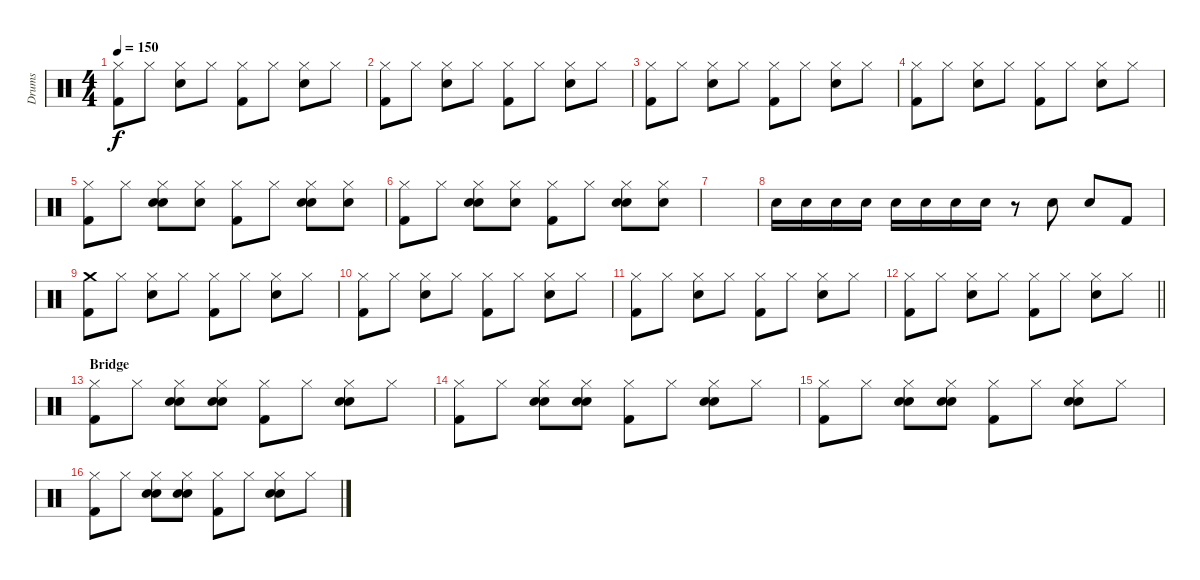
\track ("Drums" "Drums") {instrument percussion}
\staff {score}
\articulation defaults
\ts (4 4)
\tempo 150
\clef neutral
\ks c
("Hi-Hat (closed)" "Kick (hit) 2").8{dy f} "Hi-Hat (closed)".8 ("Hi-Hat (closed)" "Snare (hit) 2").8 "Hi-Hat (closed)".8 ("Hi-Hat (closed)" "Kick (hit) 2").8 "Hi-Hat (closed)".8 ("Hi-Hat (closed)" "Snare (hit) 2").8 "Hi-Hat (closed)".8 |
("Hi-Hat (closed)" "Kick (hit) 2").8 "Hi-Hat (closed)".8 ("Hi-Hat (closed)" "Snare (hit) 2").8 "Hi-Hat (closed)".8 ("Hi-Hat (closed)" "Kick (hit) 2").8 "Hi-Hat (closed)".8 ("Hi-Hat (closed)" "Snare (hit) 2").8 "Hi-Hat (closed)".8 |
("Hi-Hat (closed)" "Kick (hit) 2").8 "Hi-Hat (closed)".8 ("Hi-Hat (closed)" "Snare (hit) 2").8 "Hi-Hat (closed)".8 ("Hi-Hat (closed)" "Kick (hit) 2").8 "Hi-Hat (closed)".8 ("Hi-Hat (closed)" "Snare (hit) 2").8 "Hi-Hat (closed)".8 |
("Hi-Hat (closed)" "Kick (hit) 2").8 "Hi-Hat (closed)".8 ("Hi-Hat (closed)" "Snare (hit) 2").8 "Hi-Hat (closed)".8 ("Hi-Hat (closed)" "Kick (hit) 2").8 "Hi-Hat (closed)".8 ("Hi-Hat (closed)" "Snare (hit) 2").8 "Hi-Hat (closed)".8 |
("Hi-Hat (closed)" "Kick (hit) 2").8 "Hi-Hat (closed)".8 ("Hi-Hat (closed)" "Hand Clap (hit)" "Snare (hit) 2").8 ("Hi-Hat (closed)" "Hand Clap (hit)").8 ("Hi-Hat (closed)" "Kick (hit) 2").8 "Hi-Hat (closed)".8 ("Hi-Hat (closed)" "Hand Clap (hit)" "Snare (hit) 2").8 ("Hi-Hat (closed)" "Hand Clap (hit)").8 |
("Hi-Hat (closed)" "Kick (hit) 2").8 "Hi-Hat (closed)".8 ("Hi-Hat (closed)" "Hand Clap (hit)" "Snare (hit) 2").8 ("Hi-Hat (closed)" "Hand Clap (hit)").8 ("Hi-Hat (closed)" "Kick (hit) 2").8 "Hi-Hat (closed)".8 ("Hi-Hat (closed)" "Hand Clap (hit)" "Snare (hit) 2").8 ("Hi-Hat (closed)" "Hand Clap (hit)").8 |
|
"Snare (hit) 2".16 "Snare (hit) 2".16 "Snare (hit) 2".16 "Snare (hit) 2".16 "Snare (hit) 2".16 "Snare (hit) 2".16 "Snare (hit) 2".16 "Snare (hit) 2".16 r.8 "Snare (hit) 2".8 "Snare (hit) 2".8 "Kick (hit) 2".8 |
("Crash medium (hit)" "Kick (hit) 2").8 "Hi-Hat (closed)".8 ("Hi-Hat (closed)" "Snare (hit) 2").8 "Hi-Hat (closed)".8 ("Hi-Hat (closed)" "Kick (hit) 2").8 "Hi-Hat (closed)".8 ("Hi-Hat (closed)" "Snare (hit) 2").8 "Hi-Hat (closed)".8 |
("Hi-Hat (closed)" "Kick (hit) 2").8 "Hi-Hat (closed)".8 ("Hi-Hat (closed)" "Snare (hit) 2").8 "Hi-Hat (closed)".8 ("Hi-Hat (closed)" "Kick (hit) 2").8 "Hi-Hat (closed)".8 ("Hi-Hat (closed)" "Snare (hit) 2").8 "Hi-Hat (closed)".8 |
("Hi-Hat (closed)" "Kick (hit) 2").8 "Hi-Hat (closed)".8 ("Hi-Hat (closed)" "Snare (hit) 2").8 "Hi-Hat (closed)".8 ("Hi-Hat (closed)" "Kick (hit) 2").8 "Hi-Hat (closed)".8 ("Hi-Hat (closed)" "Snare (hit) 2").8 "Hi-Hat (closed)".8 |
\barLineRight lightlight
("Hi-Hat (closed)" "Kick (hit) 2").8 "Hi-Hat (closed)".8 ("Hi-Hat (closed)" "Snare (hit) 2").8 "Hi-Hat (closed)".8 ("Hi-Hat (closed)" "Kick (hit) 2").8 "Hi-Hat (closed)".8 ("Hi-Hat (closed)" "Snare (hit) 2").8 "Hi-Hat (closed)".8 |
\section ("" "Bridge")
("Hi-Hat (closed)" "Kick (hit) 2").8 "Hi-Hat (closed)".8 ("Hi-Hat (closed)" "Hand Clap (hit)" "Snare (hit) 2").8 ("Hi-Hat (closed)" "Hand Clap (hit)" "Snare (hit) 2").8 ("Hi-Hat (closed)" "Kick (hit) 2").8 "Hi-Hat (closed)".8 ("Hi-Hat (closed)" "Hand Clap (hit)" "Snare (hit) 2").8 "Hi-Hat (closed)".8 |
("Hi-Hat (closed)" "Kick (hit) 2").8 "Hi-Hat (closed)".8 ("Hi-Hat (closed)" "Hand Clap (hit)" "Snare (hit) 2").8 ("Hi-Hat (closed)" "Hand Clap (hit)" "Snare (hit) 2").8 ("Hi-Hat (closed)" "Kick (hit) 2").8 "Hi-Hat (closed)".8 ("Hi-Hat (closed)" "Hand Clap (hit)" "Snare (hit) 2").8 "Hi-Hat (closed)".8 |
("Hi-Hat (closed)" "Kick (hit) 2").8 "Hi-Hat (closed)".8 ("Hi-Hat (closed)" "Hand Clap (hit)" "Snare (hit) 2").8 ("Hi-Hat (closed)" "Hand Clap (hit)" "Snare (hit) 2").8 ("Hi-Hat (closed)" "Kick (hit) 2").8 "Hi-Hat (closed)".8 ("Hi-Hat (closed)" "Hand Clap (hit)" "Snare (hit) 2").8 "Hi-Hat (closed)".8 |
("Hi-Hat (closed)" "Kick (hit) 2").8 "Hi-Hat (closed)".8 ("Hi-Hat (closed)" "Hand Clap (hit)" "Snare (hit) 2").8 ("Hi-Hat (closed)" "Hand Clap (hit)" "Snare (hit) 2").8 ("Hi-Hat (closed)" "Kick (hit) 2").8 "Hi-Hat (closed)".8 ("Hi-Hat (closed)" "Hand Clap (hit)" "Snare (hit) 2").8 "Hi-Hat (closed)".8
